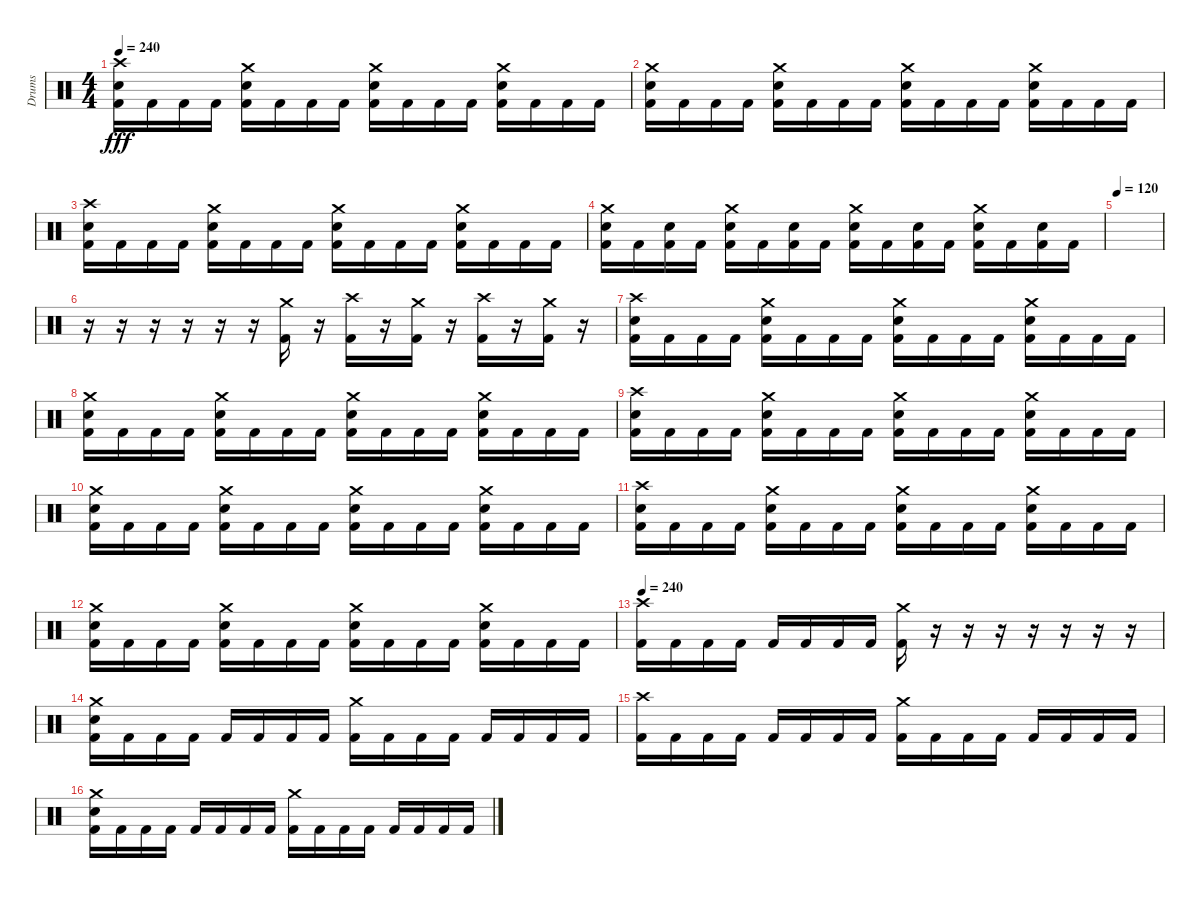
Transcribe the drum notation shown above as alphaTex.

\track ("Drums" "Drums") {instrument percussion}
\staff {score}
\articulation defaults
\ts (4 4)
\tempo 240
\clef neutral
\ks c
("Crash high (hit)" "Electric Snare (hit)" "Kick (hit) 2").16{dy fff} "Kick (hit) 2".16 "Kick (hit) 2".16 "Kick (hit) 2".16 ("Crash medium (hit)" "Electric Snare (hit)" "Kick (hit) 2").16 "Kick (hit) 2".16 "Kick (hit) 2".16 "Kick (hit) 2".16 ("Crash medium (hit)" "Electric Snare (hit)" "Kick (hit) 2").16 "Kick (hit) 2".16 "Kick (hit) 2".16 "Kick (hit) 2".16 ("Crash medium (hit)" "Electric Snare (hit)" "Kick (hit) 2").16 "Kick (hit) 2".16 "Kick (hit) 2".16 "Kick (hit) 2".16 |
("Crash medium (hit)" "Electric Snare (hit)" "Kick (hit) 2").16 "Kick (hit) 2".16 "Kick (hit) 2".16 "Kick (hit) 2".16 ("Crash medium (hit)" "Electric Snare (hit)" "Kick (hit) 2").16 "Kick (hit) 2".16 "Kick (hit) 2".16 "Kick (hit) 2".16 ("Crash medium (hit)" "Electric Snare (hit)" "Kick (hit) 2").16 "Kick (hit) 2".16 "Kick (hit) 2".16 "Kick (hit) 2".16 ("Crash medium (hit)" "Electric Snare (hit)" "Kick (hit) 2").16 "Kick (hit) 2".16 "Kick (hit) 2".16 "Kick (hit) 2".16 |
("Crash high (hit)" "Electric Snare (hit)" "Kick (hit) 2").16 "Kick (hit) 2".16 "Kick (hit) 2".16 "Kick (hit) 2".16 ("Crash medium (hit)" "Electric Snare (hit)" "Kick (hit) 2").16 "Kick (hit) 2".16 "Kick (hit) 2".16 "Kick (hit) 2".16 ("Crash medium (hit)" "Electric Snare (hit)" "Kick (hit) 2").16 "Kick (hit) 2".16 "Kick (hit) 2".16 "Kick (hit) 2".16 ("Crash medium (hit)" "Electric Snare (hit)" "Kick (hit) 2").16 "Kick (hit) 2".16 "Kick (hit) 2".16 "Kick (hit) 2".16 |
("Crash medium (hit)" "Electric Snare (hit)" "Kick (hit) 2").16 "Kick (hit) 2".16 ("Electric Snare (hit)" "Kick (hit) 2").16 "Kick (hit) 2".16 ("Crash medium (hit)" "Electric Snare (hit)" "Kick (hit) 2").16 "Kick (hit) 2".16 ("Electric Snare (hit)" "Kick (hit) 2").16 "Kick (hit) 2".16 ("Crash medium (hit)" "Electric Snare (hit)" "Kick (hit) 2").16 "Kick (hit) 2".16 ("Electric Snare (hit)" "Kick (hit) 2").16 "Kick (hit) 2".16 ("Crash medium (hit)" "Electric Snare (hit)" "Kick (hit) 2").16 "Kick (hit) 2".16 ("Electric Snare (hit)" "Kick (hit) 2").16 "Kick (hit) 2".16 |
\tempo 120
|
r.16 r.16 r.16 r.16 r.16 r.16 ("Crash medium (hit)" "Kick (hit) 2").16 r.16 ("Crash high (hit)" "Kick (hit) 2").16 r.16 ("Crash medium (hit)" "Kick (hit) 2").16 r.16 ("Crash high (hit)" "Kick (hit) 2").16 r.16 ("Crash medium (hit)" "Kick (hit) 2").16 r.16 |
("Crash high (hit)" "Electric Snare (hit)" "Kick (hit) 2").16 "Kick (hit) 2".16 "Kick (hit) 2".16 "Kick (hit) 2".16 ("Crash medium (hit)" "Electric Snare (hit)" "Kick (hit) 2").16 "Kick (hit) 2".16 "Kick (hit) 2".16 "Kick (hit) 2".16 ("Crash medium (hit)" "Electric Snare (hit)" "Kick (hit) 2").16 "Kick (hit) 2".16 "Kick (hit) 2".16 "Kick (hit) 2".16 ("Crash medium (hit)" "Electric Snare (hit)" "Kick (hit) 2").16 "Kick (hit) 2".16 "Kick (hit) 2".16 "Kick (hit) 2".16 |
("Crash medium (hit)" "Electric Snare (hit)" "Kick (hit) 2").16 "Kick (hit) 2".16 "Kick (hit) 2".16 "Kick (hit) 2".16 ("Crash medium (hit)" "Electric Snare (hit)" "Kick (hit) 2").16 "Kick (hit) 2".16 "Kick (hit) 2".16 "Kick (hit) 2".16 ("Crash medium (hit)" "Electric Snare (hit)" "Kick (hit) 2").16 "Kick (hit) 2".16 "Kick (hit) 2".16 "Kick (hit) 2".16 ("Crash medium (hit)" "Electric Snare (hit)" "Kick (hit) 2").16 "Kick (hit) 2".16 "Kick (hit) 2".16 "Kick (hit) 2".16 |
("Crash high (hit)" "Electric Snare (hit)" "Kick (hit) 2").16 "Kick (hit) 2".16 "Kick (hit) 2".16 "Kick (hit) 2".16 ("Crash medium (hit)" "Electric Snare (hit)" "Kick (hit) 2").16 "Kick (hit) 2".16 "Kick (hit) 2".16 "Kick (hit) 2".16 ("Crash medium (hit)" "Electric Snare (hit)" "Kick (hit) 2").16 "Kick (hit) 2".16 "Kick (hit) 2".16 "Kick (hit) 2".16 ("Crash medium (hit)" "Electric Snare (hit)" "Kick (hit) 2").16 "Kick (hit) 2".16 "Kick (hit) 2".16 "Kick (hit) 2".16 |
("Crash medium (hit)" "Electric Snare (hit)" "Kick (hit) 2").16 "Kick (hit) 2".16 "Kick (hit) 2".16 "Kick (hit) 2".16 ("Crash medium (hit)" "Electric Snare (hit)" "Kick (hit) 2").16 "Kick (hit) 2".16 "Kick (hit) 2".16 "Kick (hit) 2".16 ("Crash medium (hit)" "Electric Snare (hit)" "Kick (hit) 2").16 "Kick (hit) 2".16 "Kick (hit) 2".16 "Kick (hit) 2".16 ("Crash medium (hit)" "Electric Snare (hit)" "Kick (hit) 2").16 "Kick (hit) 2".16 "Kick (hit) 2".16 "Kick (hit) 2".16 |
("Crash high (hit)" "Electric Snare (hit)" "Kick (hit) 2").16 "Kick (hit) 2".16 "Kick (hit) 2".16 "Kick (hit) 2".16 ("Crash medium (hit)" "Electric Snare (hit)" "Kick (hit) 2").16 "Kick (hit) 2".16 "Kick (hit) 2".16 "Kick (hit) 2".16 ("Crash medium (hit)" "Electric Snare (hit)" "Kick (hit) 2").16 "Kick (hit) 2".16 "Kick (hit) 2".16 "Kick (hit) 2".16 ("Crash medium (hit)" "Electric Snare (hit)" "Kick (hit) 2").16 "Kick (hit) 2".16 "Kick (hit) 2".16 "Kick (hit) 2".16 |
("Crash medium (hit)" "Electric Snare (hit)" "Kick (hit) 2").16 "Kick (hit) 2".16 "Kick (hit) 2".16 "Kick (hit) 2".16 ("Crash medium (hit)" "Electric Snare (hit)" "Kick (hit) 2").16 "Kick (hit) 2".16 "Kick (hit) 2".16 "Kick (hit) 2".16 ("Crash medium (hit)" "Electric Snare (hit)" "Kick (hit) 2").16 "Kick (hit) 2".16 "Kick (hit) 2".16 "Kick (hit) 2".16 ("Crash medium (hit)" "Electric Snare (hit)" "Kick (hit) 2").16 "Kick (hit) 2".16 "Kick (hit) 2".16 "Kick (hit) 2".16 |
\tempo 240
("Crash high (hit)" "Kick (hit) 2").16 "Kick (hit) 2".16 "Kick (hit) 2".16 "Kick (hit) 2".16 "Kick (hit) 2".16 "Kick (hit) 2".16 "Kick (hit) 2".16 "Kick (hit) 2".16 ("Crash medium (hit)" "Kick (hit) 2").16 r.16 r.16 r.16 r.16 r.16 r.16 r.16 |
("Crash medium (hit)" "Electric Snare (hit)" "Kick (hit) 2").16 "Kick (hit) 2".16 "Kick (hit) 2".16 "Kick (hit) 2".16 "Kick (hit) 2".16 "Kick (hit) 2".16 "Kick (hit) 2".16 "Kick (hit) 2".16 ("Crash medium (hit)" "Kick (hit) 2").16 "Kick (hit) 2".16 "Kick (hit) 2".16 "Kick (hit) 2".16 "Kick (hit) 2".16 "Kick (hit) 2".16 "Kick (hit) 2".16 "Kick (hit) 2".16 |
("Crash high (hit)" "Kick (hit) 2").16 "Kick (hit) 2".16 "Kick (hit) 2".16 "Kick (hit) 2".16 "Kick (hit) 2".16 "Kick (hit) 2".16 "Kick (hit) 2".16 "Kick (hit) 2".16 ("Crash medium (hit)" "Kick (hit) 2").16 "Kick (hit) 2".16 "Kick (hit) 2".16 "Kick (hit) 2".16 "Kick (hit) 2".16 "Kick (hit) 2".16 "Kick (hit) 2".16 "Kick (hit) 2".16 |
("Crash medium (hit)" "Electric Snare (hit)" "Kick (hit) 2").16 "Kick (hit) 2".16 "Kick (hit) 2".16 "Kick (hit) 2".16 "Kick (hit) 2".16 "Kick (hit) 2".16 "Kick (hit) 2".16 "Kick (hit) 2".16 ("Crash medium (hit)" "Kick (hit) 2").16 "Kick (hit) 2".16 "Kick (hit) 2".16 "Kick (hit) 2".16 "Kick (hit) 2".16 "Kick (hit) 2".16 "Kick (hit) 2".16 "Kick (hit) 2".16
